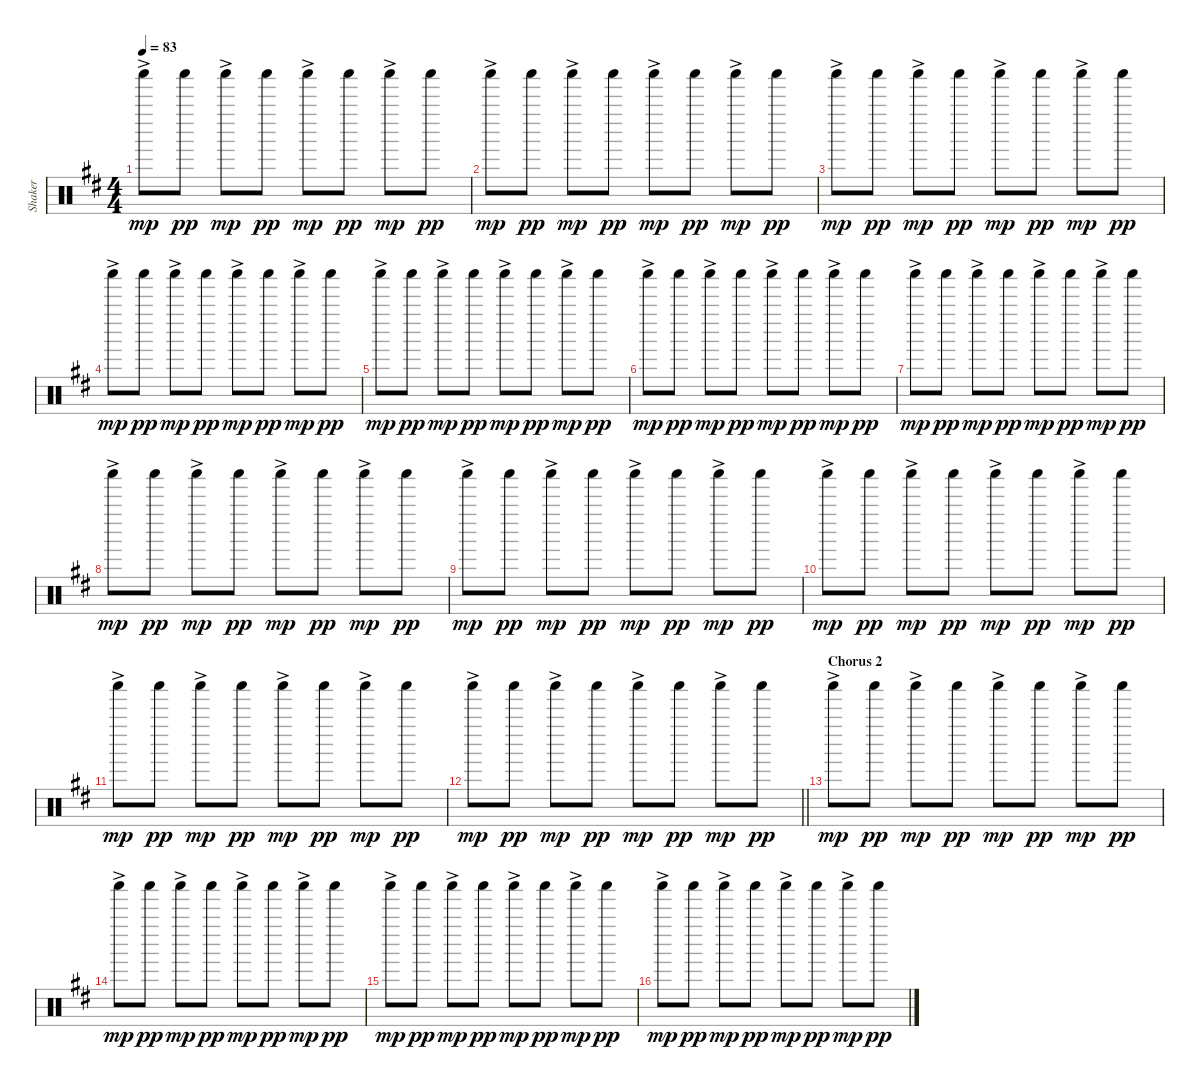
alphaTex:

\track ("Shaker" "Shaker") {instrument percussion}
\staff {score}
\articulation defaults
\ts (4 4)
\tempo 83
\clef neutral
\ks d "Shaker (hit)"{ac}.8{dy mp} "Shaker (hit)".8{dy pp} "Shaker (hit)"{ac}.8{dy mp} "Shaker (hit)".8{dy pp} "Shaker (hit)"{ac}.8{dy mp} "Shaker (hit)".8{dy pp} "Shaker (hit)"{ac}.8{dy mp} "Shaker (hit)".8{dy pp}
|
"Shaker (hit)"{ac}.8{dy mp} "Shaker (hit)".8{dy pp} "Shaker (hit)"{ac}.8{dy mp} "Shaker (hit)".8{dy pp} "Shaker (hit)"{ac}.8{dy mp} "Shaker (hit)".8{dy pp} "Shaker (hit)"{ac}.8{dy mp} "Shaker (hit)".8{dy pp} |
"Shaker (hit)"{ac}.8{dy mp} "Shaker (hit)".8{dy pp} "Shaker (hit)"{ac}.8{dy mp} "Shaker (hit)".8{dy pp} "Shaker (hit)"{ac}.8{dy mp} "Shaker (hit)".8{dy pp} "Shaker (hit)"{ac}.8{dy mp} "Shaker (hit)".8{dy pp} |
"Shaker (hit)"{ac}.8{dy mp} "Shaker (hit)".8{dy pp} "Shaker (hit)"{ac}.8{dy mp} "Shaker (hit)".8{dy pp} "Shaker (hit)"{ac}.8{dy mp} "Shaker (hit)".8{dy pp} "Shaker (hit)"{ac}.8{dy mp} "Shaker (hit)".8{dy pp} |
"Shaker (hit)"{ac}.8{dy mp} "Shaker (hit)".8{dy pp} "Shaker (hit)"{ac}.8{dy mp} "Shaker (hit)".8{dy pp} "Shaker (hit)"{ac}.8{dy mp} "Shaker (hit)".8{dy pp} "Shaker (hit)"{ac}.8{dy mp} "Shaker (hit)".8{dy pp} |
"Shaker (hit)"{ac}.8{dy mp} "Shaker (hit)".8{dy pp} "Shaker (hit)"{ac}.8{dy mp} "Shaker (hit)".8{dy pp} "Shaker (hit)"{ac}.8{dy mp} "Shaker (hit)".8{dy pp} "Shaker (hit)"{ac}.8{dy mp} "Shaker (hit)".8{dy pp} |
"Shaker (hit)"{ac}.8{dy mp} "Shaker (hit)".8{dy pp} "Shaker (hit)"{ac}.8{dy mp} "Shaker (hit)".8{dy pp} "Shaker (hit)"{ac}.8{dy mp} "Shaker (hit)".8{dy pp} "Shaker (hit)"{ac}.8{dy mp} "Shaker (hit)".8{dy pp} |
"Shaker (hit)"{ac}.8{dy mp} "Shaker (hit)".8{dy pp} "Shaker (hit)"{ac}.8{dy mp} "Shaker (hit)".8{dy pp} "Shaker (hit)"{ac}.8{dy mp} "Shaker (hit)".8{dy pp} "Shaker (hit)"{ac}.8{dy mp} "Shaker (hit)".8{dy pp} |
"Shaker (hit)"{ac}.8{dy mp} "Shaker (hit)".8{dy pp} "Shaker (hit)"{ac}.8{dy mp} "Shaker (hit)".8{dy pp} "Shaker (hit)"{ac}.8{dy mp} "Shaker (hit)".8{dy pp} "Shaker (hit)"{ac}.8{dy mp} "Shaker (hit)".8{dy pp} |
"Shaker (hit)"{ac}.8{dy mp} "Shaker (hit)".8{dy pp} "Shaker (hit)"{ac}.8{dy mp} "Shaker (hit)".8{dy pp} "Shaker (hit)"{ac}.8{dy mp} "Shaker (hit)".8{dy pp} "Shaker (hit)"{ac}.8{dy mp} "Shaker (hit)".8{dy pp} |
"Shaker (hit)"{ac}.8{dy mp} "Shaker (hit)".8{dy pp} "Shaker (hit)"{ac}.8{dy mp} "Shaker (hit)".8{dy pp} "Shaker (hit)"{ac}.8{dy mp} "Shaker (hit)".8{dy pp} "Shaker (hit)"{ac}.8{dy mp} "Shaker (hit)".8{dy pp} |
\barLineRight lightlight "Shaker (hit)"{ac}.8{dy mp} "Shaker (hit)".8{dy pp} "Shaker (hit)"{ac}.8{dy mp} "Shaker (hit)".8{dy pp} "Shaker (hit)"{ac}.8{dy mp} "Shaker (hit)".8{dy pp} "Shaker (hit)"{ac}.8{dy mp} "Shaker (hit)".8{dy pp}
|
\section ("" "Chorus 2")
"Shaker (hit)"{ac}.8{dy mp} "Shaker (hit)".8{dy pp} "Shaker (hit)"{ac}.8{dy mp} "Shaker (hit)".8{dy pp} "Shaker (hit)"{ac}.8{dy mp} "Shaker (hit)".8{dy pp} "Shaker (hit)"{ac}.8{dy mp} "Shaker (hit)".8{dy pp} |
"Shaker (hit)"{ac}.8{dy mp} "Shaker (hit)".8{dy pp} "Shaker (hit)"{ac}.8{dy mp} "Shaker (hit)".8{dy pp} "Shaker (hit)"{ac}.8{dy mp} "Shaker (hit)".8{dy pp} "Shaker (hit)"{ac}.8{dy mp} "Shaker (hit)".8{dy pp} |
"Shaker (hit)"{ac}.8{dy mp} "Shaker (hit)".8{dy pp} "Shaker (hit)"{ac}.8{dy mp} "Shaker (hit)".8{dy pp} "Shaker (hit)"{ac}.8{dy mp} "Shaker (hit)".8{dy pp} "Shaker (hit)"{ac}.8{dy mp} "Shaker (hit)".8{dy pp} |
"Shaker (hit)"{ac}.8{dy mp} "Shaker (hit)".8{dy pp} "Shaker (hit)"{ac}.8{dy mp} "Shaker (hit)".8{dy pp} "Shaker (hit)"{ac}.8{dy mp} "Shaker (hit)".8{dy pp} "Shaker (hit)"{ac}.8{dy mp} "Shaker (hit)".8{dy pp}
